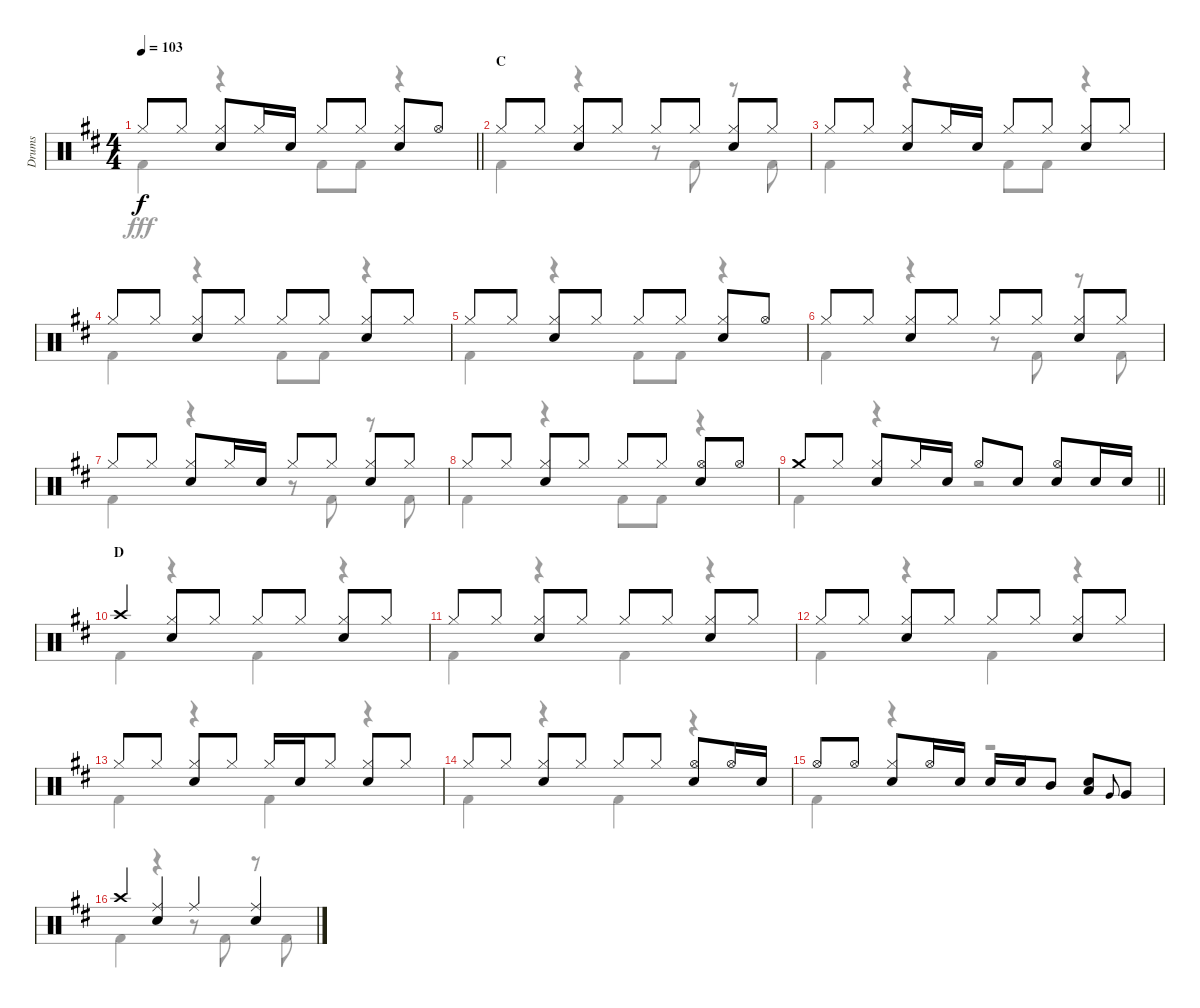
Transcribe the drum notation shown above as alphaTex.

\track ("Drums" "Drums") {instrument percussion}
\staff {score}
\articulation defaults
\voice
\ts (4 4)
\tempo 103
\clef neutral
\barLineRight lightlight
\ks d "Hi-Hat (closed)".8{dy f} "Hi-Hat (closed)".8
("Hi-Hat (closed)" "Snare (hit) 2").8 "Hi-Hat (closed)".16 "Snare (hit) 2".16 "Hi-Hat (closed)".8 "Hi-Hat (closed)".8 ("Hi-Hat (closed)" "Snare (hit) 2").8 "Hi-Hat (open)".8 |
\section ("" "C")
"Hi-Hat (closed)".8 "Hi-Hat (closed)".8 ("Hi-Hat (closed)" "Snare (hit) 2").8 "Hi-Hat (closed)".8 "Hi-Hat (closed)".8 "Hi-Hat (closed)".8 ("Hi-Hat (closed)" "Snare (hit) 2").8 "Hi-Hat (closed)".8 |
"Hi-Hat (closed)".8 "Hi-Hat (closed)".8 ("Hi-Hat (closed)" "Snare (hit) 2").8 "Hi-Hat (closed)".16 "Snare (hit) 2".16 "Hi-Hat (closed)".8 "Hi-Hat (closed)".8 ("Hi-Hat (closed)" "Snare (hit) 2").8 "Hi-Hat (closed)".8 |
"Hi-Hat (closed)".8 "Hi-Hat (closed)".8 ("Hi-Hat (closed)" "Snare (hit) 2").8 "Hi-Hat (closed)".8 "Hi-Hat (closed)".8 "Hi-Hat (closed)".8 ("Hi-Hat (closed)" "Snare (hit) 2").8 "Hi-Hat (closed)".8 |
"Hi-Hat (closed)".8 "Hi-Hat (closed)".8 ("Hi-Hat (closed)" "Snare (hit) 2").8 "Hi-Hat (closed)".8 "Hi-Hat (closed)".8 "Hi-Hat (closed)".8 ("Hi-Hat (closed)" "Snare (hit) 2").8 "Hi-Hat (open)".8 |
"Hi-Hat (closed)".8 "Hi-Hat (closed)".8 ("Hi-Hat (closed)" "Snare (hit) 2").8 "Hi-Hat (closed)".8 "Hi-Hat (closed)".8 "Hi-Hat (closed)".8 ("Hi-Hat (closed)" "Snare (hit) 2").8 "Hi-Hat (closed)".8 |
"Hi-Hat (closed)".8 "Hi-Hat (closed)".8 ("Hi-Hat (closed)" "Snare (hit) 2").8 "Hi-Hat (closed)".16 "Snare (hit) 2".16 "Hi-Hat (closed)".8 "Hi-Hat (closed)".8 ("Hi-Hat (closed)" "Snare (hit) 2").8 "Hi-Hat (closed)".8 |
"Hi-Hat (closed)".8 "Hi-Hat (closed)".8 ("Hi-Hat (closed)" "Snare (hit) 2").8 "Hi-Hat (closed)".8 "Hi-Hat (closed)".8 "Hi-Hat (closed)".8 ("Hi-Hat (open)" "Snare (hit) 2").8 "Hi-Hat (open)".8 |
\barLineRight lightlight "Crash medium (hit)".8 "Hi-Hat (closed)".8
("Hi-Hat (closed)" "Snare (hit) 2").8 "Hi-Hat (closed)".16 "Snare (hit) 2".16 "Hi-Hat (open)".8 "Snare (hit) 2".8 ("Hi-Hat (open)" "Snare (hit) 2").8 "Snare (hit) 2".16 "Snare (hit) 2".16 |
\section ("" "D")
"Crash high (hit)".4 ("Hi-Hat (closed)" "Snare (hit) 2").8 "Hi-Hat (closed)".8 "Hi-Hat (closed)".8 "Hi-Hat (closed)".8 ("Hi-Hat (closed)" "Snare (hit) 2").8 "Hi-Hat (closed)".8 |
"Hi-Hat (closed)".8 "Hi-Hat (closed)".8 ("Hi-Hat (closed)" "Snare (hit) 2").8 "Hi-Hat (closed)".8 "Hi-Hat (closed)".8 "Hi-Hat (closed)".8 ("Hi-Hat (closed)" "Snare (hit) 2").8 "Hi-Hat (closed)".8 |
"Hi-Hat (closed)".8 "Hi-Hat (closed)".8 ("Hi-Hat (closed)" "Snare (hit) 2").8 "Hi-Hat (closed)".8 "Hi-Hat (closed)".8 "Hi-Hat (closed)".8 ("Hi-Hat (closed)" "Snare (hit) 2").8 "Hi-Hat (closed)".8 |
"Hi-Hat (closed)".8 "Hi-Hat (closed)".8 ("Hi-Hat (closed)" "Snare (hit) 2").8 "Hi-Hat (closed)".8 "Hi-Hat (closed)".16 "Snare (hit) 2".16 "Hi-Hat (closed)".8 ("Hi-Hat (closed)" "Snare (hit) 2").8 "Hi-Hat (closed)".8 |
"Hi-Hat (closed)".8 "Hi-Hat (closed)".8 ("Hi-Hat (closed)" "Snare (hit) 2").8 "Hi-Hat (closed)".8 "Hi-Hat (closed)".8 "Hi-Hat (closed)".8 ("Hi-Hat (open)" "Snare (hit) 2").8 "Hi-Hat (open)".16 "Snare (hit) 2".16 |
"Hi-Hat (open)".8 "Hi-Hat (open)".8 ("Hi-Hat (closed)" "Snare (hit) 2").8 "Hi-Hat (open)".16 "Snare (hit) 2".16 "Snare (hit) 2".16 "Snare (hit) 2".16 "Mid Tom (hit)".8 ("Snare (hit) 2" "Low Tom (hit)").8 "Very Low Tom (hit)".8{gr onbeat} "Very Low Tom (hit)".8 |
"Crash high (hit)".4 ("Ride (middle)" "Snare (hit) 2").4 "Ride (middle)".4 ("Ride (middle)" "Snare (hit) 2").4
\voice
\clef neutral
\ottava regular
\simile none
\barLineRight lightlight
\ks d "Kick (hit) 2".4{dy fff}
r.4 "Kick (hit) 2".8 "Kick (hit) 2".8 r.4 |
"Kick (hit) 2".4 r.4 r.8 "Kick (hit) 2".8 r.8 "Kick (hit) 2".8 |
"Kick (hit) 2".4 r.4 "Kick (hit) 2".8 "Kick (hit) 2".8 r.4 |
"Kick (hit) 2".4 r.4 "Kick (hit) 2".8 "Kick (hit) 2".8 r.4 |
"Kick (hit) 2".4 r.4 "Kick (hit) 2".8 "Kick (hit) 2".8 r.4 |
"Kick (hit) 2".4 r.4 r.8 "Kick (hit) 2".8 r.8 "Kick (hit) 2".8 |
"Kick (hit) 2".4 r.4 r.8 "Kick (hit) 2".8 r.8 "Kick (hit) 2".8 |
"Kick (hit) 2".4 r.4 "Kick (hit) 2".8 "Kick (hit) 2".8 r.4 |
\barLineRight lightlight "Kick (hit) 2".4
r.4 r.2 |
"Kick (hit) 2".4 r.4 "Kick (hit) 2".4 r.4 |
"Kick (hit) 2".4 r.4 "Kick (hit) 2".4 r.4 |
"Kick (hit) 2".4 r.4 "Kick (hit) 2".4 r.4 |
"Kick (hit) 2".4 r.4 "Kick (hit) 2".4 r.4 |
"Kick (hit) 2".4 r.4 "Kick (hit) 2".4 r.4 |
"Kick (hit) 2".4 r.4 r.2 |
"Kick (hit) 2".4 r.4 r.8 "Kick (hit) 2".8 r.8 "Kick (hit) 2".8
